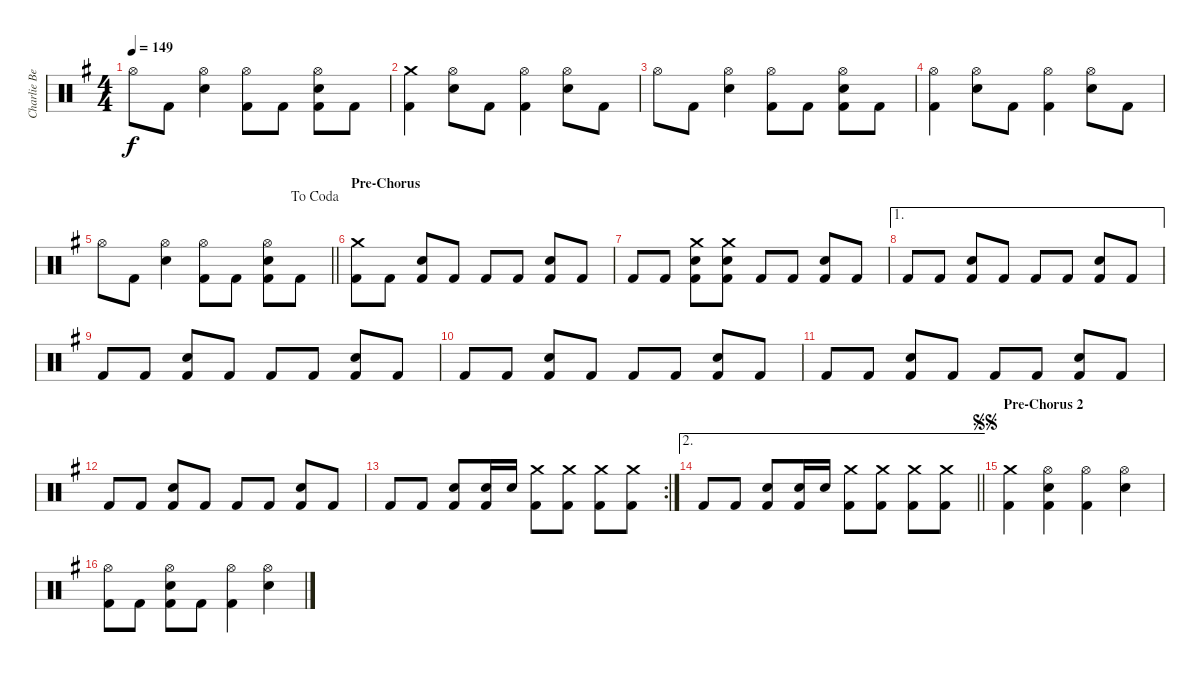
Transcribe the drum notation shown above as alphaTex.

\track ("Charlie Benate" "Charlie Be") {instrument percussion}
\staff {score}
\articulation defaults
\ts (4 4)
\tempo 149
\clef neutral
\ks g "Hi-Hat (open)".8{dy f} "Kick (hit) 2".8
("Hi-Hat (open)" "Snare (hit) 2").4 ("Hi-Hat (open)" "Kick (hit) 2").8 "Kick (hit) 2".8 ("Hi-Hat (open)" "Snare (hit) 2" "Kick (hit) 2").8 "Kick (hit) 2".8 |
("Crash medium (hit)" "Kick (hit) 2").4 ("Hi-Hat (open)" "Snare (hit) 2").8 "Kick (hit) 2".8 ("Hi-Hat (open)" "Kick (hit) 2").4 ("Hi-Hat (open)" "Snare (hit) 2").8 "Kick (hit) 2".8 |
"Hi-Hat (open)".8 "Kick (hit) 2".8 ("Hi-Hat (open)" "Snare (hit) 2").4 ("Hi-Hat (open)" "Kick (hit) 2").8 "Kick (hit) 2".8 ("Hi-Hat (open)" "Snare (hit) 2" "Kick (hit) 2").8 "Kick (hit) 2".8 |
("Hi-Hat (open)" "Kick (hit) 2").4 ("Hi-Hat (open)" "Snare (hit) 2").8 "Kick (hit) 2".8 ("Hi-Hat (open)" "Kick (hit) 2").4 ("Hi-Hat (open)" "Snare (hit) 2").8 "Kick (hit) 2".8 |
\jump dacoda
\barLineRight lightlight "Hi-Hat (open)".8 "Kick (hit) 2".8
("Hi-Hat (open)" "Snare (hit) 2").4 ("Hi-Hat (open)" "Kick (hit) 2").8 "Kick (hit) 2".8 ("Hi-Hat (open)" "Snare (hit) 2" "Kick (hit) 2").8 "Kick (hit) 2".8 |
\section ("" "Pre-Chorus")
("Crash medium (hit)" "Kick (hit) 2").8 "Kick (hit) 2".8 ("Snare (hit) 2" "Kick (hit) 2").8 "Kick (hit) 2".8 "Kick (hit) 2".8 "Kick (hit) 2".8 ("Snare (hit) 2" "Kick (hit) 2").8 "Kick (hit) 2".8 |
"Kick (hit) 2".8 "Kick (hit) 2".8 ("Crash medium (hit)" "Snare (hit) 2" "Kick (hit) 2").8 ("Crash medium (hit)" "Snare (hit) 2" "Kick (hit) 2").8 "Kick (hit) 2".8 "Kick (hit) 2".8 ("Snare (hit) 2" "Kick (hit) 2").8 "Kick (hit) 2".8 |
\ae 1 "Kick (hit) 2".8 "Kick (hit) 2".8
("Snare (hit) 2" "Kick (hit) 2").8 "Kick (hit) 2".8 "Kick (hit) 2".8 "Kick (hit) 2".8 ("Snare (hit) 2" "Kick (hit) 2").8 "Kick (hit) 2".8 |
"Kick (hit) 2".8 "Kick (hit) 2".8 ("Snare (hit) 2" "Kick (hit) 2").8 "Kick (hit) 2".8 "Kick (hit) 2".8 "Kick (hit) 2".8 ("Snare (hit) 2" "Kick (hit) 2").8 "Kick (hit) 2".8 |
"Kick (hit) 2".8 "Kick (hit) 2".8 ("Snare (hit) 2" "Kick (hit) 2").8 "Kick (hit) 2".8 "Kick (hit) 2".8 "Kick (hit) 2".8 ("Snare (hit) 2" "Kick (hit) 2").8 "Kick (hit) 2".8 |
"Kick (hit) 2".8 "Kick (hit) 2".8 ("Snare (hit) 2" "Kick (hit) 2").8 "Kick (hit) 2".8 "Kick (hit) 2".8 "Kick (hit) 2".8 ("Snare (hit) 2" "Kick (hit) 2").8 "Kick (hit) 2".8 |
"Kick (hit) 2".8 "Kick (hit) 2".8 ("Snare (hit) 2" "Kick (hit) 2").8 "Kick (hit) 2".8 "Kick (hit) 2".8 "Kick (hit) 2".8 ("Snare (hit) 2" "Kick (hit) 2").8 "Kick (hit) 2".8 |
\rc 2 "Kick (hit) 2".8 "Kick (hit) 2".8
("Snare (hit) 2" "Kick (hit) 2").8 ("Snare (hit) 2" "Kick (hit) 2").16 "Snare (hit) 2".16 ("Crash medium (hit)" "Kick (hit) 2").8 ("Crash medium (hit)" "Kick (hit) 2").8 ("Crash medium (hit)" "Kick (hit) 2").8 ("Crash medium (hit)" "Kick (hit) 2").8 |
\ae 2
\barLineRight lightlight "Kick (hit) 2".8 "Kick (hit) 2".8
("Snare (hit) 2" "Kick (hit) 2").8 ("Snare (hit) 2" "Kick (hit) 2").16 "Snare (hit) 2".16 ("Crash medium (hit)" "Kick (hit) 2").8 ("Crash medium (hit)" "Kick (hit) 2").8 ("Crash medium (hit)" "Kick (hit) 2").8 ("Crash medium (hit)" "Kick (hit) 2").8 |
\section ("" "Pre-Chorus 2")
\jump segnosegno
("Crash medium (hit)" "Kick (hit) 2").4 ("Hi-Hat (open)" "Snare (hit) 2" "Kick (hit) 2").4 ("Hi-Hat (open)" "Kick (hit) 2").4 ("Hi-Hat (open)" "Snare (hit) 2").4 |
("Hi-Hat (open)" "Kick (hit) 2").8 "Kick (hit) 2".8 ("Hi-Hat (open)" "Snare (hit) 2" "Kick (hit) 2").8 "Kick (hit) 2".8 ("Hi-Hat (open)" "Kick (hit) 2").4 ("Hi-Hat (open)" "Snare (hit) 2").4
